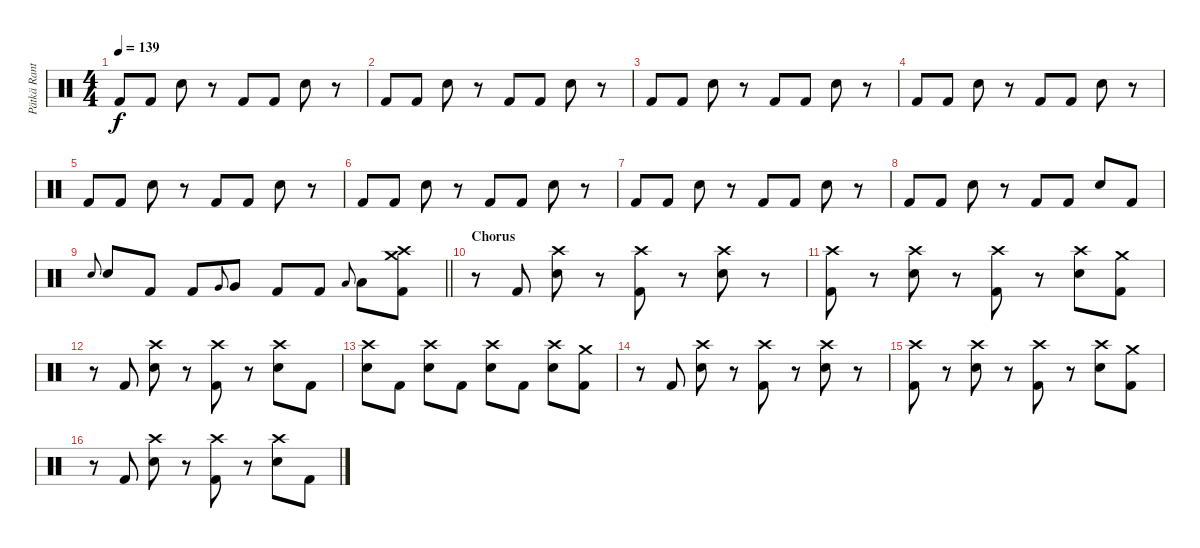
\track ("Pätkä Rantala (Drums)" "Pätkä Rant") {instrument percussion}
\staff {score}
\articulation defaults
\ts (4 4)
\tempo 139
\clef neutral
\ks c "Kick (hit) 2".8{dy f} "Kick (hit) 2".8 "Snare (hit) 2".8
r.8 "Kick (hit) 2".8 "Kick (hit) 2".8 "Snare (hit) 2".8 r.8 |
"Kick (hit) 2".8 "Kick (hit) 2".8 "Snare (hit) 2".8 r.8 "Kick (hit) 2".8 "Kick (hit) 2".8 "Snare (hit) 2".8 r.8 |
"Kick (hit) 2".8 "Kick (hit) 2".8 "Snare (hit) 2".8 r.8 "Kick (hit) 2".8 "Kick (hit) 2".8 "Snare (hit) 2".8 r.8 |
"Kick (hit) 2".8 "Kick (hit) 2".8 "Snare (hit) 2".8 r.8 "Kick (hit) 2".8 "Kick (hit) 2".8 "Snare (hit) 2".8 r.8 |
"Kick (hit) 2".8 "Kick (hit) 2".8 "Snare (hit) 2".8 r.8 "Kick (hit) 2".8 "Kick (hit) 2".8 "Snare (hit) 2".8 r.8 |
"Kick (hit) 2".8 "Kick (hit) 2".8 "Snare (hit) 2".8 r.8 "Kick (hit) 2".8 "Kick (hit) 2".8 "Snare (hit) 2".8 r.8 |
"Kick (hit) 2".8 "Kick (hit) 2".8 "Snare (hit) 2".8 r.8 "Kick (hit) 2".8 "Kick (hit) 2".8 "Snare (hit) 2".8 r.8 |
"Kick (hit) 2".8 "Kick (hit) 2".8 "Snare (hit) 2".8 r.8 "Kick (hit) 2".8 "Kick (hit) 2".8 "Snare (hit) 2".8 "Kick (hit) 2".8 |
\barLineRight lightlight "Snare (hit) 2".8{gr onbeat} "Snare (hit) 2".8 "Kick (hit) 2".8 "Kick (hit) 2".8 "Very Low Tom (hit)".8{gr onbeat} "Very Low Tom (hit)".8 "Kick (hit) 2".8 "Kick (hit) 2".8 "Low Floor Tom (hit)".8{gr onbeat} "Low Floor Tom (hit)".8
("Crash high (hit)" "Crash medium (hit)" "Kick (hit) 2").8 |
\section ("" "Chorus")
r.8 "Kick (hit) 2".8 ("Crash high (hit)" "Snare (hit) 2").8 r.8 ("Crash high (hit)" "Kick (hit) 2").8 r.8 ("Crash high (hit)" "Snare (hit) 2").8 r.8 |
("Crash high (hit)" "Kick (hit) 2").8 r.8 ("Crash high (hit)" "Snare (hit) 2").8 r.8 ("Crash high (hit)" "Kick (hit) 2").8 r.8 ("Crash high (hit)" "Snare (hit) 2").8 ("Crash medium (hit)" "Kick (hit) 2").8 |
r.8 "Kick (hit) 2".8 ("Crash high (hit)" "Snare (hit) 2").8 r.8 ("Crash high (hit)" "Kick (hit) 2").8 r.8 ("Crash high (hit)" "Snare (hit) 2").8 "Kick (hit) 2".8 |
("Crash high (hit)" "Snare (hit) 2").8 "Kick (hit) 2".8 ("Crash high (hit)" "Snare (hit) 2").8 "Kick (hit) 2".8 ("Crash high (hit)" "Snare (hit) 2").8 "Kick (hit) 2".8 ("Crash high (hit)" "Snare (hit) 2").8 ("Crash medium (hit)" "Kick (hit) 2").8 |
r.8 "Kick (hit) 2".8 ("Crash high (hit)" "Snare (hit) 2").8 r.8 ("Crash high (hit)" "Kick (hit) 2").8 r.8 ("Crash high (hit)" "Snare (hit) 2").8 r.8 |
("Crash high (hit)" "Kick (hit) 2").8 r.8 ("Crash high (hit)" "Snare (hit) 2").8 r.8 ("Crash high (hit)" "Kick (hit) 2").8 r.8 ("Crash high (hit)" "Snare (hit) 2").8 ("Crash medium (hit)" "Kick (hit) 2").8 |
r.8 "Kick (hit) 2".8 ("Crash high (hit)" "Snare (hit) 2").8 r.8 ("Crash high (hit)" "Kick (hit) 2").8 r.8 ("Crash high (hit)" "Snare (hit) 2").8 "Kick (hit) 2".8
